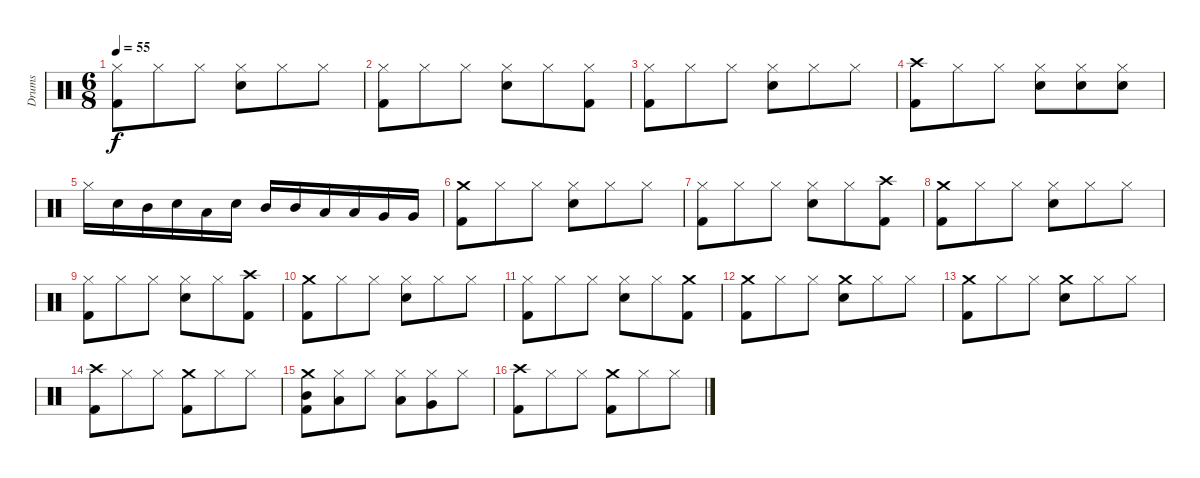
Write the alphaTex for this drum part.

\track ("Drums" "Drums") {instrument percussion}
\staff {score}
\articulation defaults
\ts (6 8)
\tempo 55
\clef neutral
\ks c
("Hi-Hat (closed)" "Kick (hit) 2").8{dy f} "Hi-Hat (closed)".8 "Hi-Hat (closed)".8 ("Hi-Hat (closed)" "Snare (hit) 2").8 "Hi-Hat (closed)".8 "Hi-Hat (closed)".8 |
("Hi-Hat (closed)" "Kick (hit) 2").8 "Hi-Hat (closed)".8 "Hi-Hat (closed)".8 ("Hi-Hat (closed)" "Snare (hit) 2").8 "Hi-Hat (closed)".8 ("Hi-Hat (closed)" "Kick (hit) 2").8 |
("Hi-Hat (closed)" "Kick (hit) 2").8 "Hi-Hat (closed)".8 "Hi-Hat (closed)".8 ("Hi-Hat (closed)" "Snare (hit) 2").8 "Hi-Hat (closed)".8 "Hi-Hat (closed)".8 |
("Crash high (hit)" "Kick (hit) 2").8 "Hi-Hat (closed)".8 "Hi-Hat (closed)".8 ("Hi-Hat (closed)" "Snare (hit) 2").8 ("Hi-Hat (closed)" "Snare (hit) 2").8 ("Hi-Hat (closed)" "Snare (hit) 2").8 |
"Hi-Hat (closed)".16 "Snare (hit) 2".16 "Mid Tom (hit)".16 "Snare (hit) 2".16 "Low Tom (hit)".16 "Snare (hit) 2".16 "Mid Tom (hit)".16 "Mid Tom (hit)".16 "Low Tom (hit)".16 "Low Tom (hit)".16 "Very Low Tom (hit)".16 "Very Low Tom (hit)".16 |
("Crash medium (hit)" "Kick (hit) 2").8 "Hi-Hat (closed)".8 "Hi-Hat (closed)".8 ("Hi-Hat (closed)" "Snare (hit) 2").8 "Hi-Hat (closed)".8 "Hi-Hat (closed)".8 |
("Hi-Hat (closed)" "Kick (hit) 2").8 "Hi-Hat (closed)".8 "Hi-Hat (closed)".8 ("Hi-Hat (closed)" "Snare (hit) 2").8 "Hi-Hat (closed)".8 ("Crash high (hit)" "Kick (hit) 2").8 |
("Crash medium (hit)" "Kick (hit) 2").8 "Hi-Hat (closed)".8 "Hi-Hat (closed)".8 ("Hi-Hat (closed)" "Snare (hit) 2").8 "Hi-Hat (closed)".8 "Hi-Hat (closed)".8 |
("Hi-Hat (closed)" "Kick (hit) 2").8 "Hi-Hat (closed)".8 "Hi-Hat (closed)".8 ("Hi-Hat (closed)" "Snare (hit) 2").8 "Hi-Hat (closed)".8 ("Crash high (hit)" "Kick (hit) 2").8 |
("Crash medium (hit)" "Kick (hit) 2").8 "Hi-Hat (closed)".8 "Hi-Hat (closed)".8 ("Hi-Hat (closed)" "Snare (hit) 2").8 "Hi-Hat (closed)".8 "Hi-Hat (closed)".8 |
("Hi-Hat (closed)" "Kick (hit) 2").8 "Hi-Hat (closed)".8 "Hi-Hat (closed)".8 ("Hi-Hat (closed)" "Snare (hit) 2").8 "Hi-Hat (closed)".8 ("Crash medium (hit)" "Kick (hit) 2").8 |
("Crash medium (hit)" "Kick (hit) 2").8 "Hi-Hat (closed)".8 "Hi-Hat (closed)".8 ("Crash medium (hit)" "Snare (hit) 2").8 "Hi-Hat (closed)".8 "Hi-Hat (closed)".8 |
("Crash medium (hit)" "Kick (hit) 2").8 "Hi-Hat (closed)".8 "Hi-Hat (closed)".8 ("Crash medium (hit)" "Snare (hit) 2").8 "Hi-Hat (closed)".8 "Hi-Hat (closed)".8 |
("Crash high (hit)" "Kick (hit) 2").8 "Hi-Hat (closed)".8 "Hi-Hat (closed)".8 ("Crash medium (hit)" "Kick (hit) 2").8 "Hi-Hat (closed)".8 "Hi-Hat (closed)".8 |
("Crash medium (hit)" "Kick (hit) 2" "Mid Tom (hit)").8 ("Hi-Hat (closed)" "Low Tom (hit)").8 "Hi-Hat (closed)".8 ("Hi-Hat (closed)" "Low Tom (hit)").8 ("Hi-Hat (closed)" "Very Low Tom (hit)").8 "Hi-Hat (closed)".8 |
("Crash high (hit)" "Kick (hit) 2").8 "Hi-Hat (closed)".8 "Hi-Hat (closed)".8 ("Crash medium (hit)" "Kick (hit) 2").8 "Hi-Hat (closed)".8 "Hi-Hat (closed)".8
